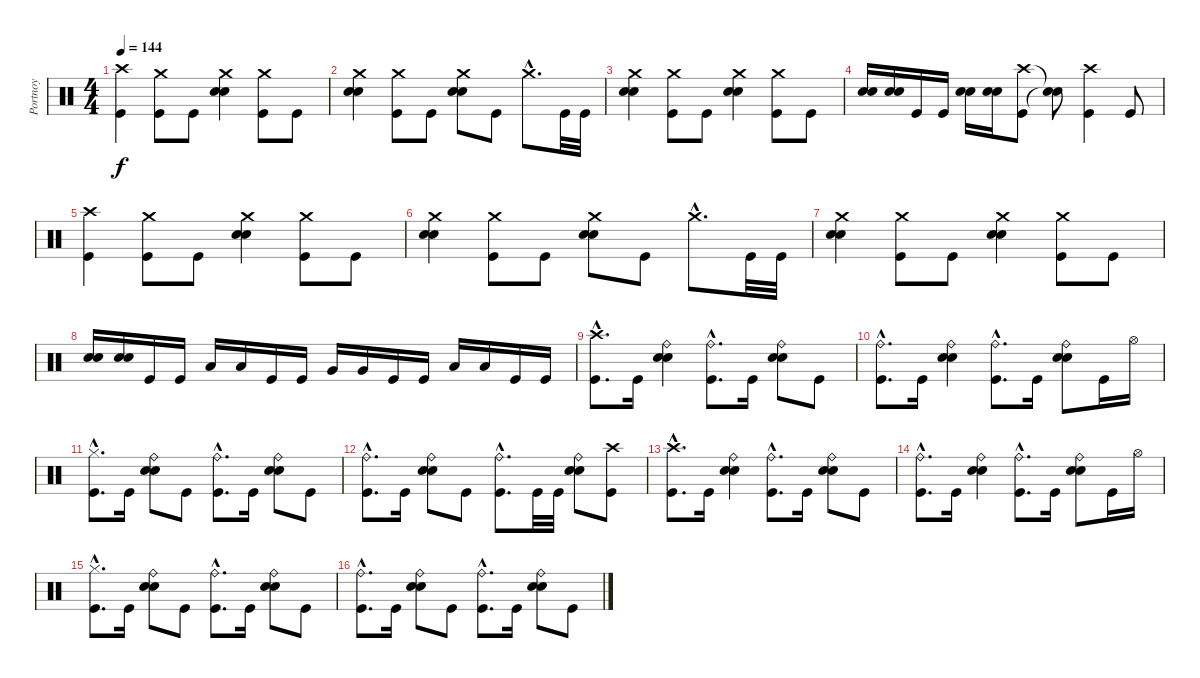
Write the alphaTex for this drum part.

\track ("Portnoy" "Portnoy") {instrument percussion}
\staff {score}
\articulation defaults
\ts (4 4)
\tempo 144
\clef neutral
\ks c
("Crash high (hit)" "Kick (hit)").4{dy f} ("Crash medium (hit)" "Kick (hit)").8 "Kick (hit)".8 ("Crash medium (hit)" "Snare (hit) 2" "Electric Snare (hit)").4 ("Crash medium (hit)" "Kick (hit)").8 "Kick (hit)".8 |
("Crash medium (hit)" "Snare (hit) 2" "Electric Snare (hit)").4 ("Crash medium (hit)" "Kick (hit)").8 "Kick (hit)".8 ("Crash medium (hit)" "Snare (hit) 2" "Electric Snare (hit)").8 "Kick (hit)".8 "Crash medium (hit)"{hac}.8{d} "Kick (hit)".32 "Kick (hit)".32 |
("Crash medium (hit)" "Snare (hit) 2" "Electric Snare (hit)").4 ("Crash medium (hit)" "Kick (hit)").8 "Kick (hit)".8 ("Crash medium (hit)" "Snare (hit) 2" "Electric Snare (hit)").4 ("Crash medium (hit)" "Kick (hit)").8 "Kick (hit)".8 |
("Snare (hit) 2" "Electric Snare (hit)").16 ("Snare (hit) 2" "Electric Snare (hit)").16 "Kick (hit)".16 "Kick (hit)".16 ("Snare (hit) 2" "Electric Snare (hit)").16 ("Snare (hit) 2" "Electric Snare (hit)").16 ("Crash high (hit)" "Kick (hit)").8 ("Snare (hit)"{t} "Snare (hit)"{t}).8 ("Crash high (hit)" "Kick (hit)").4 "Kick (hit)".8 |
("Crash high (hit)" "Kick (hit)").4 ("Crash medium (hit)" "Kick (hit)").8 "Kick (hit)".8 ("Crash medium (hit)" "Snare (hit) 2" "Electric Snare (hit)").4 ("Crash medium (hit)" "Kick (hit)").8 "Kick (hit)".8 |
("Crash medium (hit)" "Snare (hit) 2" "Electric Snare (hit)").4 ("Crash medium (hit)" "Kick (hit)").8 "Kick (hit)".8 ("Crash medium (hit)" "Snare (hit) 2" "Electric Snare (hit)").8 "Kick (hit)".8 "Crash medium (hit)"{hac}.8{d} "Kick (hit)".32 "Kick (hit)".32 |
("Crash medium (hit)" "Snare (hit) 2" "Electric Snare (hit)").4 ("Crash medium (hit)" "Kick (hit)").8 "Kick (hit)".8 ("Crash medium (hit)" "Snare (hit) 2" "Electric Snare (hit)").4 ("Crash medium (hit)" "Kick (hit)").8 "Kick (hit)".8 |
("Snare (hit) 2" "Electric Snare (hit)").16 ("Snare (hit) 2" "Electric Snare (hit)").16 "Kick (hit)".16 "Kick (hit)".16 "Low Tom (hit)".16 "Low Tom (hit)".16 "Kick (hit)".16 "Kick (hit)".16 "Very Low Tom (hit)".16 "Very Low Tom (hit)".16 "Kick (hit)".16 "Kick (hit)".16 "Low Floor Tom (hit)".16 "Low Floor Tom (hit)".16 "Kick (hit)".16 "Kick (hit)".16 |
("Crash high (hit)"{hac} "Kick (hit)"{hac}).8{d} "Kick (hit)".16 ("Ride (bell)" "Snare (hit) 2" "Electric Snare (hit)").4 ("Ride (bell)"{hac} "Kick (hit)"{hac}).8{d} "Kick (hit)".16 ("Ride (bell)" "Snare (hit) 2" "Electric Snare (hit)").8 "Kick (hit)".8 |
("Ride (bell)"{hac} "Kick (hit)"{hac}).8{d} "Kick (hit)".16 ("Ride (bell)" "Snare (hit) 2" "Electric Snare (hit)").4 ("Ride (bell)"{hac} "Kick (hit)"{hac}).8{d} "Kick (hit)".16 ("Ride (bell)" "Snare (hit) 2" "Electric Snare (hit)").8 "Kick (hit)".16 "Hi-Hat (open)".16 |
("Hi-Hat (closed)"{hac} "Kick (hit)"{hac}).8{d} "Kick (hit)".16 ("Ride (bell)" "Snare (hit) 2" "Electric Snare (hit)").8 "Kick (hit)".8 ("Ride (bell)"{hac} "Kick (hit)"{hac}).8{d} "Kick (hit)".16 ("Ride (bell)" "Snare (hit) 2" "Electric Snare (hit)").8 "Kick (hit)".8 |
("Ride (bell)"{hac} "Kick (hit)"{hac}).8{d} "Kick (hit)".16 ("Ride (bell)" "Snare (hit) 2" "Electric Snare (hit)").8 "Kick (hit)".8 ("Ride (bell)"{hac} "Kick (hit)"{hac}).8{d} "Kick (hit)".32 "Kick (hit)".32 ("Ride (bell)" "Snare (hit) 2" "Electric Snare (hit)").8 ("Crash high (hit)" "Kick (hit)").8 |
("Crash high (hit)"{hac} "Kick (hit)"{hac}).8{d} "Kick (hit)".16 ("Ride (bell)" "Snare (hit) 2" "Electric Snare (hit)").4 ("Ride (bell)"{hac} "Kick (hit)"{hac}).8{d} "Kick (hit)".16 ("Ride (bell)" "Snare (hit) 2" "Electric Snare (hit)").8 "Kick (hit)".8 |
("Ride (bell)"{hac} "Kick (hit)"{hac}).8{d} "Kick (hit)".16 ("Ride (bell)" "Snare (hit) 2" "Electric Snare (hit)").4 ("Ride (bell)"{hac} "Kick (hit)"{hac}).8{d} "Kick (hit)".16 ("Ride (bell)" "Snare (hit) 2" "Electric Snare (hit)").8 "Kick (hit)".16 "Hi-Hat (open)".16 |
("Hi-Hat (closed)"{hac} "Kick (hit)"{hac}).8{d} "Kick (hit)".16 ("Ride (bell)" "Snare (hit) 2" "Electric Snare (hit)").8 "Kick (hit)".8 ("Ride (bell)"{hac} "Kick (hit)"{hac}).8{d} "Kick (hit)".16 ("Ride (bell)" "Snare (hit) 2" "Electric Snare (hit)").8 "Kick (hit)".8 |
("Ride (bell)"{hac} "Kick (hit)"{hac}).8{d} "Kick (hit)".16 ("Ride (bell)" "Snare (hit) 2" "Electric Snare (hit)").8 "Kick (hit)".8 ("Ride (bell)"{hac} "Kick (hit)"{hac}).8{d} "Kick (hit)".16 ("Ride (bell)" "Snare (hit) 2" "Electric Snare (hit)").8 "Kick (hit)".8
